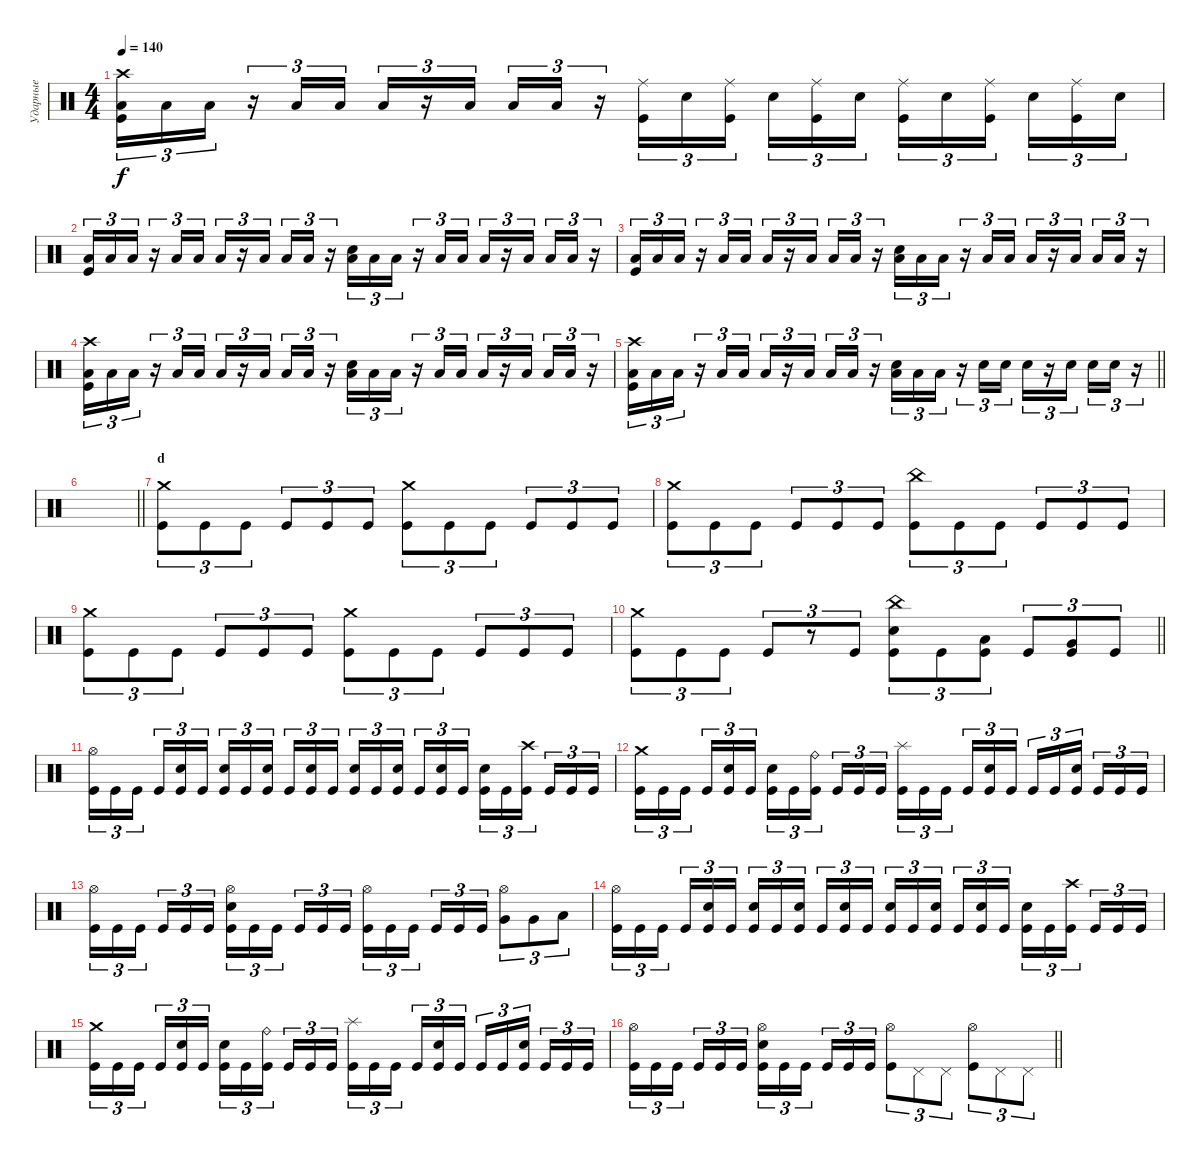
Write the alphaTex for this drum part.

\track ("Ударные" "Ударные") {instrument percussion}
\staff {score}
\articulation defaults
\ts (4 4)
\tempo 140
\clef neutral
\ks c
("Low Floor Tom (hit)" "Kick (hit)" "Crash high (hit)").16{tu (3 2) dy f} "Low Floor Tom (hit)".16{tu (3 2)} "Low Floor Tom (hit)".16{tu (3 2)} r.16{tu (3 2)} "Low Floor Tom (hit)".16{tu (3 2)} "Low Floor Tom (hit)".16{tu (3 2)} "Low Floor Tom (hit)".16{tu (3 2)} r.16{tu (3 2)} "Low Floor Tom (hit)".16{tu (3 2) beam splitsecondary} "Low Floor Tom (hit)".16{tu (3 2)} "Low Floor Tom (hit)".16{tu (3 2)} r.16{tu (3 2)} ("Ride (middle)" "Kick (hit)").16{tu (3 2)} "Electric Snare (hit)".16{tu (3 2)} ("Ride (middle)" "Kick (hit)").16{tu (3 2) beam splitsecondary} "Electric Snare (hit)".16{tu (3 2)} ("Ride (middle)" "Kick (hit)").16{tu (3 2)} "Electric Snare (hit)".16{tu (3 2)} ("Ride (middle)" "Kick (hit)").16{tu (3 2)} "Electric Snare (hit)".16{tu (3 2)} ("Ride (middle)" "Kick (hit)").16{tu (3 2) beam splitsecondary} "Electric Snare (hit)".16{tu (3 2)} ("Ride (middle)" "Kick (hit)").16{tu (3 2)} "Electric Snare (hit)".16{tu (3 2)} |
("Low Floor Tom (hit)" "Kick (hit)").16{tu (3 2)} "Low Floor Tom (hit)".16{tu (3 2)} "Low Floor Tom (hit)".16{tu (3 2)} r.16{tu (3 2)} "Low Floor Tom (hit)".16{tu (3 2)} "Low Floor Tom (hit)".16{tu (3 2)} "Low Floor Tom (hit)".16{tu (3 2)} r.16{tu (3 2)} "Low Floor Tom (hit)".16{tu (3 2) beam splitsecondary} "Low Floor Tom (hit)".16{tu (3 2)} "Low Floor Tom (hit)".16{tu (3 2)} r.16{tu (3 2)} ("Low Floor Tom (hit)" "Electric Snare (hit)").16{tu (3 2)} "Low Floor Tom (hit)".16{tu (3 2)} "Low Floor Tom (hit)".16{tu (3 2)} r.16{tu (3 2)} "Low Floor Tom (hit)".16{tu (3 2)} "Low Floor Tom (hit)".16{tu (3 2)} "Low Floor Tom (hit)".16{tu (3 2)} r.16{tu (3 2)} "Low Floor Tom (hit)".16{tu (3 2) beam splitsecondary} "Low Floor Tom (hit)".16{tu (3 2)} "Low Floor Tom (hit)".16{tu (3 2)} r.16{tu (3 2)} |
("Low Floor Tom (hit)" "Kick (hit)").16{tu (3 2)} "Low Floor Tom (hit)".16{tu (3 2)} "Low Floor Tom (hit)".16{tu (3 2)} r.16{tu (3 2)} "Low Floor Tom (hit)".16{tu (3 2)} "Low Floor Tom (hit)".16{tu (3 2)} "Low Floor Tom (hit)".16{tu (3 2)} r.16{tu (3 2)} "Low Floor Tom (hit)".16{tu (3 2) beam splitsecondary} "Low Floor Tom (hit)".16{tu (3 2)} "Low Floor Tom (hit)".16{tu (3 2)} r.16{tu (3 2)} ("Low Floor Tom (hit)" "Electric Snare (hit)").16{tu (3 2)} "Low Floor Tom (hit)".16{tu (3 2)} "Low Floor Tom (hit)".16{tu (3 2)} r.16{tu (3 2)} "Low Floor Tom (hit)".16{tu (3 2)} "Low Floor Tom (hit)".16{tu (3 2)} "Low Floor Tom (hit)".16{tu (3 2)} r.16{tu (3 2)} "Low Floor Tom (hit)".16{tu (3 2) beam splitsecondary} "Low Floor Tom (hit)".16{tu (3 2)} "Low Floor Tom (hit)".16{tu (3 2)} r.16{tu (3 2)} |
("Low Floor Tom (hit)" "Kick (hit)" "Crash high (hit)").16{tu (3 2)} "Low Floor Tom (hit)".16{tu (3 2)} "Low Floor Tom (hit)".16{tu (3 2)} r.16{tu (3 2)} "Low Floor Tom (hit)".16{tu (3 2)} "Low Floor Tom (hit)".16{tu (3 2)} "Low Floor Tom (hit)".16{tu (3 2)} r.16{tu (3 2)} "Low Floor Tom (hit)".16{tu (3 2) beam splitsecondary} "Low Floor Tom (hit)".16{tu (3 2)} "Low Floor Tom (hit)".16{tu (3 2)} r.16{tu (3 2)} ("Low Floor Tom (hit)" "Electric Snare (hit)").16{tu (3 2)} "Low Floor Tom (hit)".16{tu (3 2)} "Low Floor Tom (hit)".16{tu (3 2)} r.16{tu (3 2)} "Low Floor Tom (hit)".16{tu (3 2)} "Low Floor Tom (hit)".16{tu (3 2)} "Low Floor Tom (hit)".16{tu (3 2)} r.16{tu (3 2)} "Low Floor Tom (hit)".16{tu (3 2) beam splitsecondary} "Low Floor Tom (hit)".16{tu (3 2)} "Low Floor Tom (hit)".16{tu (3 2)} r.16{tu (3 2)} |
\barLineRight lightlight
("Low Floor Tom (hit)" "Kick (hit)" "Crash high (hit)").16{tu (3 2)} "Low Floor Tom (hit)".16{tu (3 2)} "Low Floor Tom (hit)".16{tu (3 2)} r.16{tu (3 2)} "Low Floor Tom (hit)".16{tu (3 2)} "Low Floor Tom (hit)".16{tu (3 2)} "Low Floor Tom (hit)".16{tu (3 2)} r.16{tu (3 2)} "Low Floor Tom (hit)".16{tu (3 2) beam splitsecondary} "Low Floor Tom (hit)".16{tu (3 2)} "Low Floor Tom (hit)".16{tu (3 2)} r.16{tu (3 2)} ("Low Floor Tom (hit)" "Electric Snare (hit)").16{tu (3 2)} "Low Floor Tom (hit)".16{tu (3 2)} "Low Floor Tom (hit)".16{tu (3 2)} r.16{tu (3 2)} "Electric Snare (hit)".16{tu (3 2)} "Electric Snare (hit)".16{tu (3 2)} "Electric Snare (hit)".16{tu (3 2)} r.16{tu (3 2)} "Electric Snare (hit)".16{tu (3 2) beam splitsecondary} "Electric Snare (hit)".16{tu (3 2)} "Electric Snare (hit)".16{tu (3 2)} r.16{tu (3 2)} |
\barLineRight lightlight
|
\section ("" "d")
("Crash medium (hit)" "Kick (hit)").8{tu (3 2)} "Kick (hit)".8{tu (3 2)} "Kick (hit)".8{tu (3 2)} "Kick (hit)".8{tu (3 2)} "Kick (hit)".8{tu (3 2)} "Kick (hit)".8{tu (3 2)} ("Crash medium (hit)" "Kick (hit)").8{tu (3 2)} "Kick (hit)".8{tu (3 2)} "Kick (hit)".8{tu (3 2)} "Kick (hit)".8{tu (3 2)} "Kick (hit)".8{tu (3 2)} "Kick (hit)".8{tu (3 2)} |
("Crash medium (hit)" "Kick (hit)").8{tu (3 2)} "Kick (hit)".8{tu (3 2)} "Kick (hit)".8{tu (3 2)} "Kick (hit)".8{tu (3 2)} "Kick (hit)".8{tu (3 2)} "Kick (hit)".8{tu (3 2)} ("China (hit)" "Kick (hit)").8{tu (3 2)} "Kick (hit)".8{tu (3 2)} "Kick (hit)".8{tu (3 2)} "Kick (hit)".8{tu (3 2)} "Kick (hit)".8{tu (3 2)} "Kick (hit)".8{tu (3 2)} |
("Crash medium (hit)" "Kick (hit)").8{tu (3 2)} "Kick (hit)".8{tu (3 2)} "Kick (hit)".8{tu (3 2)} "Kick (hit)".8{tu (3 2)} "Kick (hit)".8{tu (3 2)} "Kick (hit)".8{tu (3 2)} ("Crash medium (hit)" "Kick (hit)").8{tu (3 2)} "Kick (hit)".8{tu (3 2)} "Kick (hit)".8{tu (3 2)} "Kick (hit)".8{tu (3 2)} "Kick (hit)".8{tu (3 2)} "Kick (hit)".8{tu (3 2)} |
\barLineRight lightlight
("Crash medium (hit)" "Kick (hit)").8{tu (3 2)} "Kick (hit)".8{tu (3 2)} "Kick (hit)".8{tu (3 2)} "Kick (hit)".8{tu (3 2)} r.8{tu (3 2)} "Kick (hit)".8{tu (3 2)} ("China (hit)" "Electric Snare (hit)" "Kick (hit)").8{tu (3 2)} "Kick (hit)".8{tu (3 2)} ("Low Tom (hit)" "Kick (hit)").8{tu (3 2)} "Kick (hit)".8{tu (3 2)} ("Very Low Tom (hit)" "Kick (hit)").8{tu (3 2)} "Kick (hit)".8{tu (3 2)} |
("Hi-Hat (open)" "Kick (hit)").16{tu (3 2)} "Kick (hit)".16{tu (3 2)} "Kick (hit)".16{tu (3 2) beam splitsecondary} "Kick (hit)".16{tu (3 2)} ("Electric Snare (hit)" "Kick (hit)").16{tu (3 2)} "Kick (hit)".16{tu (3 2)} ("Electric Snare (hit)" "Kick (hit)").16{tu (3 2)} "Kick (hit)".16{tu (3 2)} ("Electric Snare (hit)" "Kick (hit)").16{tu (3 2) beam splitsecondary} "Kick (hit)".16{tu (3 2)} ("Electric Snare (hit)" "Kick (hit)").16{tu (3 2)} "Kick (hit)".16{tu (3 2)} ("Electric Snare (hit)" "Kick (hit)").16{tu (3 2)} "Kick (hit)".16{tu (3 2)} ("Electric Snare (hit)" "Kick (hit)").16{tu (3 2) beam splitsecondary} "Kick (hit)".16{tu (3 2)} ("Electric Snare (hit)" "Kick (hit)").16{tu (3 2)} "Kick (hit)".16{tu (3 2)} ("Electric Snare (hit)" "Kick (hit)").16{tu (3 2)} "Kick (hit)".16{tu (3 2)} ("Crash high (hit)" "Kick (hit)").16{tu (3 2) beam splitsecondary} "Kick (hit)".16{tu (3 2)} "Kick (hit)".16{tu (3 2)} "Kick (hit)".16{tu (3 2)} |
("Crash medium (hit)" "Kick (hit)").16{tu (3 2)} "Kick (hit)".16{tu (3 2)} "Kick (hit)".16{tu (3 2) beam splitsecondary} "Kick (hit)".16{tu (3 2)} ("Electric Snare (hit)" "Kick (hit)").16{tu (3 2)} "Kick (hit)".16{tu (3 2)} ("Electric Snare (hit)" "Kick (hit)").16{tu (3 2)} "Kick (hit)".16{tu (3 2)} ("Ride (bell)" "Kick (hit)").16{tu (3 2) beam splitsecondary} "Kick (hit)".16{tu (3 2)} "Kick (hit)".16{tu (3 2)} "Kick (hit)".16{tu (3 2)} ("Splash (hit)" "Kick (hit)").16{tu (3 2)} "Kick (hit)".16{tu (3 2)} "Kick (hit)".16{tu (3 2) beam splitsecondary} "Kick (hit)".16{tu (3 2)} ("Electric Snare (hit)" "Kick (hit)").16{tu (3 2)} "Kick (hit)".16{tu (3 2)} "Kick (hit)".16{tu (3 2)} "Kick (hit)".16{tu (3 2)} ("Electric Snare (hit)" "Kick (hit)").16{tu (3 2) beam splitsecondary} "Kick (hit)".16{tu (3 2)} "Kick (hit)".16{tu (3 2)} "Kick (hit)".16{tu (3 2)} |
("Hi-Hat (open)" "Kick (hit)").16{tu (3 2)} "Kick (hit)".16{tu (3 2)} "Kick (hit)".16{tu (3 2) beam splitsecondary} "Kick (hit)".16{tu (3 2)} "Kick (hit)".16{tu (3 2)} "Kick (hit)".16{tu (3 2)} ("Hi-Hat (open)" "Electric Snare (hit)" "Kick (hit)").16{tu (3 2)} "Kick (hit)".16{tu (3 2)} "Kick (hit)".16{tu (3 2) beam splitsecondary} "Kick (hit)".16{tu (3 2)} "Kick (hit)".16{tu (3 2)} "Kick (hit)".16{tu (3 2)} ("Hi-Hat (open)" "Kick (hit)").16{tu (3 2)} "Kick (hit)".16{tu (3 2)} "Kick (hit)".16{tu (3 2) beam splitsecondary} "Kick (hit)".16{tu (3 2)} "Kick (hit)".16{tu (3 2)} "Kick (hit)".16{tu (3 2)} ("Hi-Hat (open)" "Very Low Tom (hit)").8{tu (3 2)} "Very Low Tom (hit)".8{tu (3 2)} "Low Floor Tom (hit)".8{tu (3 2)} |
("Hi-Hat (open)" "Kick (hit)").16{tu (3 2)} "Kick (hit)".16{tu (3 2)} "Kick (hit)".16{tu (3 2) beam splitsecondary} "Kick (hit)".16{tu (3 2)} ("Electric Snare (hit)" "Kick (hit)").16{tu (3 2)} "Kick (hit)".16{tu (3 2)} ("Electric Snare (hit)" "Kick (hit)").16{tu (3 2)} "Kick (hit)".16{tu (3 2)} ("Electric Snare (hit)" "Kick (hit)").16{tu (3 2) beam splitsecondary} "Kick (hit)".16{tu (3 2)} ("Electric Snare (hit)" "Kick (hit)").16{tu (3 2)} "Kick (hit)".16{tu (3 2)} ("Electric Snare (hit)" "Kick (hit)").16{tu (3 2)} "Kick (hit)".16{tu (3 2)} ("Electric Snare (hit)" "Kick (hit)").16{tu (3 2) beam splitsecondary} "Kick (hit)".16{tu (3 2)} ("Electric Snare (hit)" "Kick (hit)").16{tu (3 2)} "Kick (hit)".16{tu (3 2)} ("Electric Snare (hit)" "Kick (hit)").16{tu (3 2)} "Kick (hit)".16{tu (3 2)} ("Crash high (hit)" "Kick (hit)").16{tu (3 2) beam splitsecondary} "Kick (hit)".16{tu (3 2)} "Kick (hit)".16{tu (3 2)} "Kick (hit)".16{tu (3 2)} |
("Crash medium (hit)" "Kick (hit)").16{tu (3 2)} "Kick (hit)".16{tu (3 2)} "Kick (hit)".16{tu (3 2) beam splitsecondary} "Kick (hit)".16{tu (3 2)} ("Electric Snare (hit)" "Kick (hit)").16{tu (3 2)} "Kick (hit)".16{tu (3 2)} ("Electric Snare (hit)" "Kick (hit)").16{tu (3 2)} "Kick (hit)".16{tu (3 2)} ("Ride (bell)" "Kick (hit)").16{tu (3 2) beam splitsecondary} "Kick (hit)".16{tu (3 2)} "Kick (hit)".16{tu (3 2)} "Kick (hit)".16{tu (3 2)} ("Splash (hit)" "Kick (hit)").16{tu (3 2)} "Kick (hit)".16{tu (3 2)} "Kick (hit)".16{tu (3 2) beam splitsecondary} "Kick (hit)".16{tu (3 2)} ("Electric Snare (hit)" "Kick (hit)").16{tu (3 2)} "Kick (hit)".16{tu (3 2)} "Kick (hit)".16{tu (3 2)} "Kick (hit)".16{tu (3 2)} ("Electric Snare (hit)" "Kick (hit)").16{tu (3 2) beam splitsecondary} "Kick (hit)".16{tu (3 2)} "Kick (hit)".16{tu (3 2)} "Kick (hit)".16{tu (3 2)} |
\barLineRight lightlight
("Hi-Hat (open)" "Kick (hit)").16{tu (3 2)} "Kick (hit)".16{tu (3 2)} "Kick (hit)".16{tu (3 2) beam splitsecondary} "Kick (hit)".16{tu (3 2)} "Kick (hit)".16{tu (3 2)} "Kick (hit)".16{tu (3 2)} ("Hi-Hat (open)" "Electric Snare (hit)" "Kick (hit)").16{tu (3 2)} "Kick (hit)".16{tu (3 2)} "Kick (hit)".16{tu (3 2) beam splitsecondary} "Kick (hit)".16{tu (3 2)} "Kick (hit)".16{tu (3 2)} "Kick (hit)".16{tu (3 2)} ("Hi-Hat (open)" "Kick (hit)").8{tu (3 2)} "Pedal Hi-Hat (hit)".8{tu (3 2)} "Pedal Hi-Hat (hit)".8{tu (3 2)} ("Hi-Hat (open)" "Kick (hit)").8{tu (3 2)} "Pedal Hi-Hat (hit)".8{tu (3 2)} "Pedal Hi-Hat (hit)".8{tu (3 2)}
